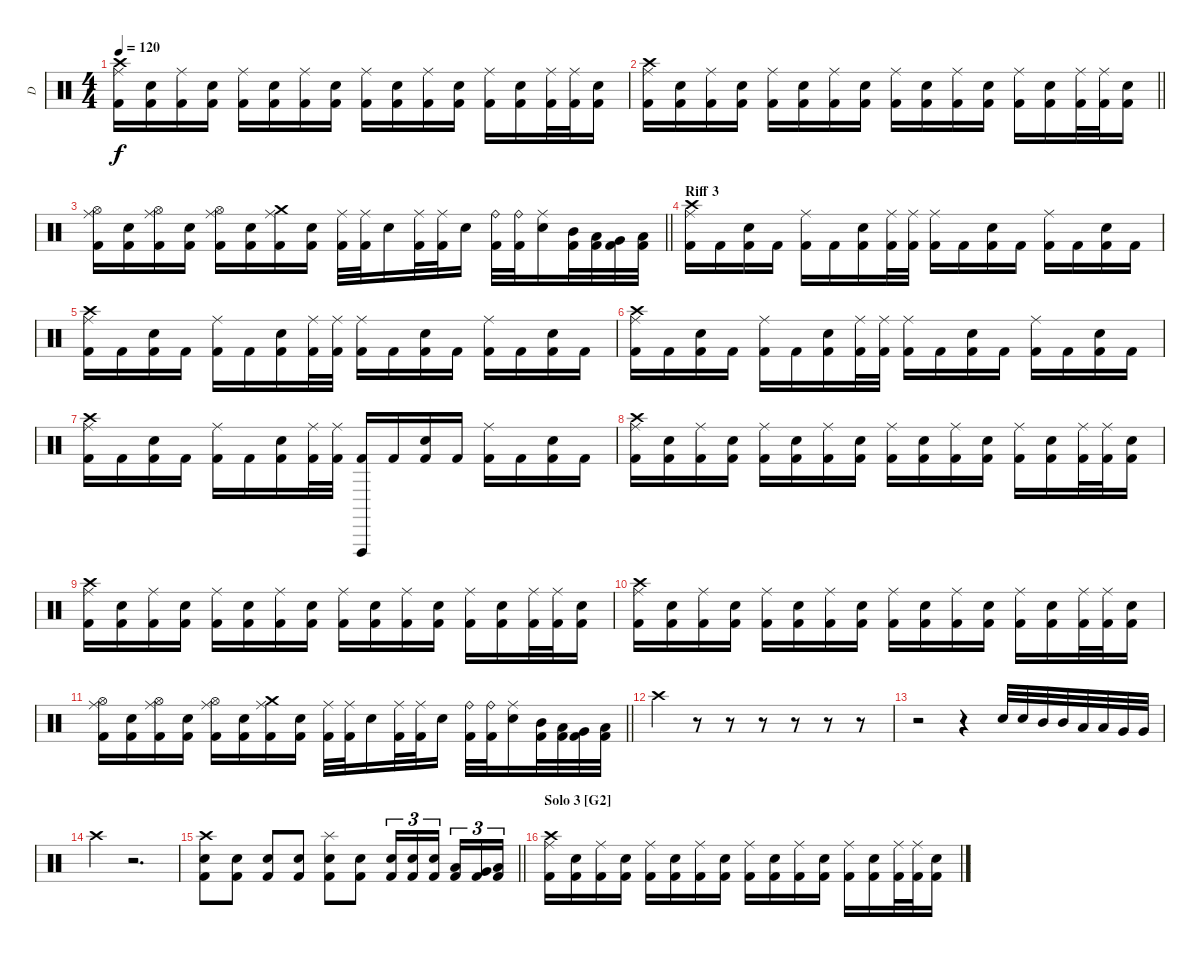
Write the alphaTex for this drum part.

\track ("D" "D") {instrument percussion}
\staff {score}
\articulation defaults
\ts (4 4)
\tempo 120
\clef neutral
\ks c
("Crash high (hit)" "Ride (middle)" "Kick (hit) 2").16{dy f} ("Electric Snare (hit)" "Kick (hit) 2").16 ("Ride (middle)" "Kick (hit) 2").16 ("Electric Snare (hit)" "Kick (hit) 2").16 ("Ride (middle)" "Kick (hit) 2").16 ("Electric Snare (hit)" "Kick (hit) 2").16 ("Ride (middle)" "Kick (hit) 2").16 ("Electric Snare (hit)" "Kick (hit) 2").16 ("Ride (middle)" "Kick (hit) 2").16 ("Electric Snare (hit)" "Kick (hit) 2").16 ("Ride (middle)" "Kick (hit) 2").16 ("Electric Snare (hit)" "Kick (hit) 2").16 ("Ride (middle)" "Kick (hit) 2").16 ("Electric Snare (hit)" "Kick (hit) 2").16 ("Ride (middle)" "Kick (hit) 2").32 ("Ride (middle)" "Kick (hit) 2").32 ("Electric Snare (hit)" "Kick (hit) 2").16 |
\barLineRight lightlight
("Crash high (hit)" "Ride (middle)" "Kick (hit) 2").16 ("Electric Snare (hit)" "Kick (hit) 2").16 ("Ride (middle)" "Kick (hit) 2").16 ("Electric Snare (hit)" "Kick (hit) 2").16 ("Ride (middle)" "Kick (hit) 2").16 ("Electric Snare (hit)" "Kick (hit) 2").16 ("Ride (middle)" "Kick (hit) 2").16 ("Electric Snare (hit)" "Kick (hit) 2").16 ("Ride (middle)" "Kick (hit) 2").16 ("Electric Snare (hit)" "Kick (hit) 2").16 ("Ride (middle)" "Kick (hit) 2").16 ("Electric Snare (hit)" "Kick (hit) 2").16 ("Ride (middle)" "Kick (hit) 2").16 ("Electric Snare (hit)" "Kick (hit) 2").16 ("Ride (middle)" "Kick (hit) 2").32 ("Ride (middle)" "Kick (hit) 2").32 ("Electric Snare (hit)" "Kick (hit) 2").16 |
\barLineRight lightlight
("Hi-Hat (open)" "Ride (middle)" "Kick (hit) 2").16 ("Electric Snare (hit)" "Kick (hit) 2").16 ("Hi-Hat (open)" "Ride (middle)" "Kick (hit) 2").16 ("Electric Snare (hit)" "Kick (hit) 2").16 ("Hi-Hat (open)" "Ride (middle)" "Kick (hit) 2").16 ("Electric Snare (hit)" "Kick (hit) 2").16 ("Crash medium (hit)" "Ride (middle)" "Kick (hit) 2").16 ("Electric Snare (hit)" "Kick (hit) 2").16 ("Ride (middle)" "Kick (hit) 2").32 ("Ride (middle)" "Kick (hit) 2").32 "Electric Snare (hit)".16 ("Ride (middle)" "Kick (hit) 2").32 ("Ride (middle)" "Kick (hit) 2").32 "Electric Snare (hit)".16 ("Ride (bell)" "Kick (hit) 2").32 ("Ride (bell)" "Kick (hit) 2").32 ("Ride (middle)" "Electric Snare (hit)").16 ("Mid Tom (hit)" "Kick (hit) 2").32 ("Low Tom (hit)" "Kick (hit) 2").32 ("Very Low Tom (hit)" "Kick (hit) 2").32 ("Low Floor Tom (hit)" "Kick (hit) 2").32 |
\section ("" "Riff 3")
("Crash high (hit)" "Ride (middle)" "Kick (hit) 2").16 "Kick (hit) 2".16 ("Electric Snare (hit)" "Kick (hit) 2").16 "Kick (hit) 2".16 ("Ride (middle)" "Kick (hit) 2").16 "Kick (hit) 2".16 ("Electric Snare (hit)" "Kick (hit) 2").16 ("Ride (middle)" "Kick (hit) 2").32 ("Ride (middle)" "Kick (hit) 2").32 ("Ride (middle)" "Kick (hit) 2").16 "Kick (hit) 2".16 ("Electric Snare (hit)" "Kick (hit) 2").16 "Kick (hit) 2".16 ("Ride (middle)" "Kick (hit) 2").16 "Kick (hit) 2".16 ("Electric Snare (hit)" "Kick (hit) 2").16 "Kick (hit) 2".16 |
("Crash high (hit)" "Ride (middle)" "Kick (hit) 2").16 "Kick (hit) 2".16 ("Electric Snare (hit)" "Kick (hit) 2").16 "Kick (hit) 2".16 ("Ride (middle)" "Kick (hit) 2").16 "Kick (hit) 2".16 ("Electric Snare (hit)" "Kick (hit) 2").16 ("Ride (middle)" "Kick (hit) 2").32 ("Ride (middle)" "Kick (hit) 2").32 ("Ride (middle)" "Kick (hit) 2").16 "Kick (hit) 2".16 ("Electric Snare (hit)" "Kick (hit) 2").16 "Kick (hit) 2".16 ("Ride (middle)" "Kick (hit) 2").16 "Kick (hit) 2".16 ("Electric Snare (hit)" "Kick (hit) 2").16 "Kick (hit) 2".16 |
("Crash high (hit)" "Ride (middle)" "Kick (hit) 2").16 "Kick (hit) 2".16 ("Electric Snare (hit)" "Kick (hit) 2").16 "Kick (hit) 2".16 ("Ride (middle)" "Kick (hit) 2").16 "Kick (hit) 2".16 ("Electric Snare (hit)" "Kick (hit) 2").16 ("Ride (middle)" "Kick (hit) 2").32 ("Ride (middle)" "Kick (hit) 2").32 ("Ride (middle)" "Kick (hit) 2").16 "Kick (hit) 2".16 ("Electric Snare (hit)" "Kick (hit) 2").16 "Kick (hit) 2".16 ("Ride (middle)" "Kick (hit) 2").16 "Kick (hit) 2".16 ("Electric Snare (hit)" "Kick (hit) 2").16 "Kick (hit) 2".16 |
("Crash high (hit)" "Ride (middle)" "Kick (hit) 2").16 "Kick (hit) 2".16 ("Electric Snare (hit)" "Kick (hit) 2").16 "Kick (hit) 2".16 ("Ride (middle)" "Kick (hit) 2").16 "Kick (hit) 2".16 ("Electric Snare (hit)" "Kick (hit) 2").16 ("Ride (middle)" "Kick (hit) 2").32 ("Ride (middle)" "Kick (hit) 2").32 ("Vibraslap (hit)" "Kick (hit) 2").16 "Kick (hit) 2".16 ("Electric Snare (hit)" "Kick (hit) 2").16 "Kick (hit) 2".16 ("Ride (middle)" "Kick (hit) 2").16 "Kick (hit) 2".16 ("Electric Snare (hit)" "Kick (hit) 2").16 "Kick (hit) 2".16 |
("Crash high (hit)" "Ride (middle)" "Kick (hit) 2").16 ("Electric Snare (hit)" "Kick (hit) 2").16 ("Ride (middle)" "Kick (hit) 2").16 ("Electric Snare (hit)" "Kick (hit) 2").16 ("Ride (middle)" "Kick (hit) 2").16 ("Electric Snare (hit)" "Kick (hit) 2").16 ("Ride (middle)" "Kick (hit) 2").16 ("Electric Snare (hit)" "Kick (hit) 2").16 ("Ride (middle)" "Kick (hit) 2").16 ("Electric Snare (hit)" "Kick (hit) 2").16 ("Ride (middle)" "Kick (hit) 2").16 ("Electric Snare (hit)" "Kick (hit) 2").16 ("Ride (middle)" "Kick (hit) 2").16 ("Electric Snare (hit)" "Kick (hit) 2").16 ("Ride (middle)" "Kick (hit) 2").32 ("Ride (middle)" "Kick (hit) 2").32 ("Electric Snare (hit)" "Kick (hit) 2").16 |
("Crash high (hit)" "Ride (middle)" "Kick (hit) 2").16 ("Electric Snare (hit)" "Kick (hit) 2").16 ("Ride (middle)" "Kick (hit) 2").16 ("Electric Snare (hit)" "Kick (hit) 2").16 ("Ride (middle)" "Kick (hit) 2").16 ("Electric Snare (hit)" "Kick (hit) 2").16 ("Ride (middle)" "Kick (hit) 2").16 ("Electric Snare (hit)" "Kick (hit) 2").16 ("Ride (middle)" "Kick (hit) 2").16 ("Electric Snare (hit)" "Kick (hit) 2").16 ("Ride (middle)" "Kick (hit) 2").16 ("Electric Snare (hit)" "Kick (hit) 2").16 ("Ride (middle)" "Kick (hit) 2").16 ("Electric Snare (hit)" "Kick (hit) 2").16 ("Ride (middle)" "Kick (hit) 2").32 ("Ride (middle)" "Kick (hit) 2").32 ("Electric Snare (hit)" "Kick (hit) 2").16 |
("Crash high (hit)" "Ride (middle)" "Kick (hit) 2").16 ("Electric Snare (hit)" "Kick (hit) 2").16 ("Ride (middle)" "Kick (hit) 2").16 ("Electric Snare (hit)" "Kick (hit) 2").16 ("Ride (middle)" "Kick (hit) 2").16 ("Electric Snare (hit)" "Kick (hit) 2").16 ("Ride (middle)" "Kick (hit) 2").16 ("Electric Snare (hit)" "Kick (hit) 2").16 ("Ride (middle)" "Kick (hit) 2").16 ("Electric Snare (hit)" "Kick (hit) 2").16 ("Ride (middle)" "Kick (hit) 2").16 ("Electric Snare (hit)" "Kick (hit) 2").16 ("Ride (middle)" "Kick (hit) 2").16 ("Electric Snare (hit)" "Kick (hit) 2").16 ("Ride (middle)" "Kick (hit) 2").32 ("Ride (middle)" "Kick (hit) 2").32 ("Electric Snare (hit)" "Kick (hit) 2").16 |
\barLineRight lightlight
("Hi-Hat (open)" "Ride (middle)" "Kick (hit) 2").16 ("Electric Snare (hit)" "Kick (hit) 2").16 ("Hi-Hat (open)" "Ride (middle)" "Kick (hit) 2").16 ("Electric Snare (hit)" "Kick (hit) 2").16 ("Hi-Hat (open)" "Ride (middle)" "Kick (hit) 2").16 ("Electric Snare (hit)" "Kick (hit) 2").16 ("Crash medium (hit)" "Ride (middle)" "Kick (hit) 2").16 ("Electric Snare (hit)" "Kick (hit) 2").16 ("Ride (middle)" "Kick (hit) 2").32 ("Ride (middle)" "Kick (hit) 2").32 "Electric Snare (hit)".16 ("Ride (middle)" "Kick (hit) 2").32 ("Ride (middle)" "Kick (hit) 2").32 "Electric Snare (hit)".16 ("Ride (bell)" "Kick (hit) 2").32 ("Ride (bell)" "Kick (hit) 2").32 ("Ride (middle)" "Electric Snare (hit)").16 ("Mid Tom (hit)" "Kick (hit) 2").32 ("Low Tom (hit)" "Kick (hit) 2").32 ("Very Low Tom (hit)" "Kick (hit) 2").32 ("Low Floor Tom (hit)" "Kick (hit) 2").32 |
"Crash high (hit)".4 r.8 r.8 r.8 r.8 r.8 r.8 |
r.2 r.4 "Electric Snare (hit)".32 "Electric Snare (hit)".32 "Mid Tom (hit)".32 "Mid Tom (hit)".32 "Low Tom (hit)".32 "Low Tom (hit)".32 "Very Low Tom (hit)".32 "Very Low Tom (hit)".32 |
"Crash high (hit)".4 r.2{d} |
\barLineRight lightlight
("Crash high (hit)" "Electric Snare (hit)" "Kick (hit) 2").8 ("Electric Snare (hit)" "Kick (hit) 2").8 ("Electric Snare (hit)" "Kick (hit) 2").8 ("Electric Snare (hit)" "Kick (hit) 2").8 ("Splash (hit)" "Electric Snare (hit)" "Kick (hit) 2").8 ("Electric Snare (hit)" "Kick (hit) 2").8 ("Electric Snare (hit)" "Kick (hit) 2").16{tu (3 2)} ("Electric Snare (hit)" "Kick (hit) 2").16{tu (3 2)} ("Electric Snare (hit)" "Kick (hit) 2").16{tu (3 2) beam splitsecondary} ("Low Floor Tom (hit)" "Kick (hit) 2").16{tu (3 2)} ("Very Low Tom (hit)" "Kick (hit) 2").16{tu (3 2)} ("Low Tom (hit)" "Kick (hit) 2").16{tu (3 2)} |
\section ("" "Solo 3 [G2]")
("Crash high (hit)" "Ride (middle)" "Kick (hit) 2").16 ("Electric Snare (hit)" "Kick (hit) 2").16 ("Ride (middle)" "Kick (hit) 2").16 ("Electric Snare (hit)" "Kick (hit) 2").16 ("Ride (middle)" "Kick (hit) 2").16 ("Electric Snare (hit)" "Kick (hit) 2").16 ("Ride (middle)" "Kick (hit) 2").16 ("Electric Snare (hit)" "Kick (hit) 2").16 ("Ride (middle)" "Kick (hit) 2").16 ("Electric Snare (hit)" "Kick (hit) 2").16 ("Ride (middle)" "Kick (hit) 2").16 ("Electric Snare (hit)" "Kick (hit) 2").16 ("Ride (middle)" "Kick (hit) 2").16 ("Electric Snare (hit)" "Kick (hit) 2").16 ("Ride (middle)" "Kick (hit) 2").32 ("Ride (middle)" "Kick (hit) 2").32 ("Electric Snare (hit)" "Kick (hit) 2").16
